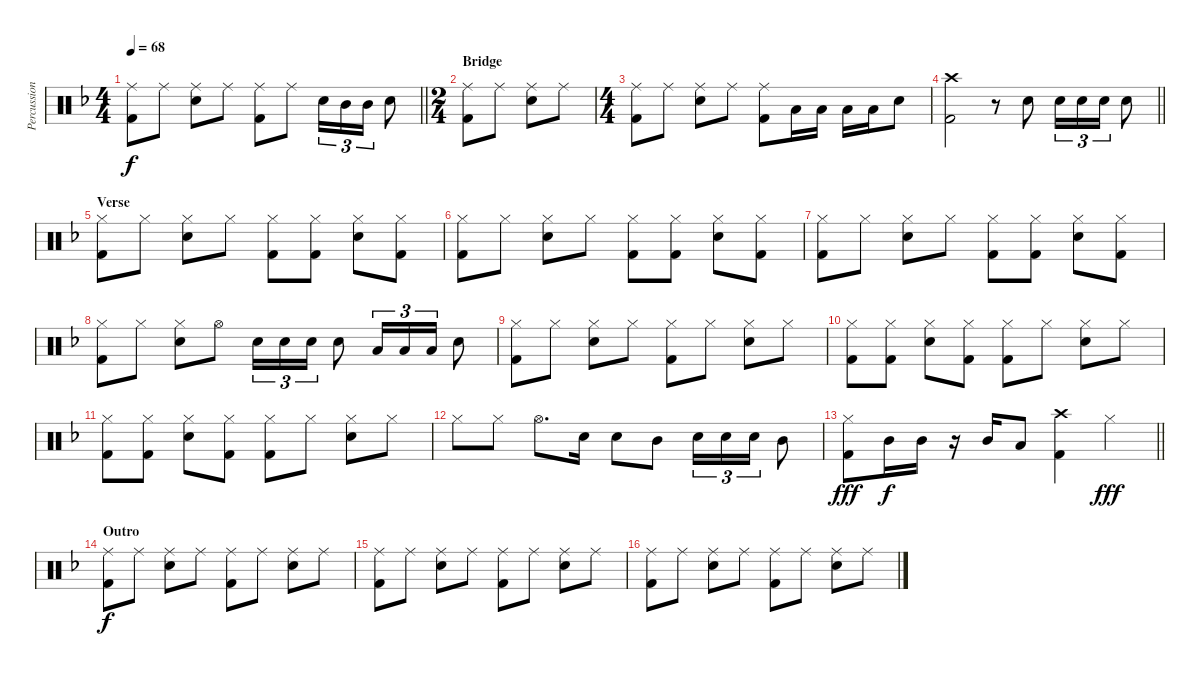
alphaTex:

\track ("Percussion" "Percussion") {instrument percussion}
\staff {score}
\articulation defaults
\ts (4 4)
\tempo 68
\clef neutral
\barLineRight lightlight
\ks f
("Ride (middle)" "Kick (hit) 2").8{dy f} "Ride (middle)".8 ("Ride (middle)" "Snare (hit) 2").8 "Ride (middle)".8 ("Ride (middle)" "Kick (hit) 2").8 "Ride (middle)".8 "Snare (hit) 2".16{tu (3 2)} "Mid Tom (hit)".16{tu (3 2)} "Mid Tom (hit)".16{tu (3 2)} "Snare (hit) 2".8 |
\ts (2 4)
\section ("" "Bridge")
("Ride (middle)" "Kick (hit) 2").8 "Ride (middle)".8 ("Ride (middle)" "Snare (hit) 2").8 "Ride (middle)".8 |
\ts (4 4)
("Ride (middle)" "Kick (hit) 2").8 "Ride (middle)".8 ("Ride (middle)" "Snare (hit) 2").8 "Ride (middle)".8 ("Ride (middle)" "Kick (hit) 2").8 "Low Floor Tom (hit)".16 "Low Floor Tom (hit)".16 "Low Floor Tom (hit)".16 "Low Floor Tom (hit)".16 "Snare (hit) 2".8 |
\barLineRight lightlight
("Crash high (hit)" "Kick (hit) 2").2 r.8 "Snare (hit) 2".8 "Snare (hit) 2".16{tu (3 2)} "Snare (hit) 2".16{tu (3 2)} "Snare (hit) 2".16{tu (3 2)} "Snare (hit) 2".8 |
\section ("" "Verse")
("Hi-Hat (closed)" "Kick (hit) 2").8 "Hi-Hat (closed)".8 ("Hi-Hat (closed)" "Snare (hit) 2").8 "Hi-Hat (closed)".8 ("Hi-Hat (closed)" "Kick (hit) 2").8 ("Hi-Hat (closed)" "Kick (hit) 2").8 ("Hi-Hat (closed)" "Snare (hit) 2").8 ("Hi-Hat (closed)" "Kick (hit) 2").8 |
("Hi-Hat (closed)" "Kick (hit) 2").8 "Hi-Hat (closed)".8 ("Hi-Hat (closed)" "Snare (hit) 2").8 "Hi-Hat (closed)".8 ("Hi-Hat (closed)" "Kick (hit) 2").8 ("Hi-Hat (closed)" "Kick (hit) 2").8 ("Hi-Hat (closed)" "Snare (hit) 2").8 ("Hi-Hat (closed)" "Kick (hit) 2").8 |
("Hi-Hat (closed)" "Kick (hit) 2").8 "Hi-Hat (closed)".8 ("Hi-Hat (closed)" "Snare (hit) 2").8 "Hi-Hat (closed)".8 ("Hi-Hat (closed)" "Kick (hit) 2").8 ("Hi-Hat (closed)" "Kick (hit) 2").8 ("Hi-Hat (closed)" "Snare (hit) 2").8 ("Hi-Hat (closed)" "Kick (hit) 2").8 |
("Hi-Hat (closed)" "Kick (hit) 2").8 "Hi-Hat (closed)".8 ("Hi-Hat (closed)" "Snare (hit) 2").8 "Hi-Hat (open)".8 "Snare (hit) 2".16{tu (3 2)} "Snare (hit) 2".16{tu (3 2)} "Snare (hit) 2".16{tu (3 2)} "Snare (hit) 2".8 "Low Floor Tom (hit)".16{tu (3 2)} "Low Floor Tom (hit)".16{tu (3 2)} "Low Floor Tom (hit)".16{tu (3 2)} "Snare (hit) 2".8 |
("Hi-Hat (closed)" "Kick (hit) 2").8 "Hi-Hat (closed)".8 ("Hi-Hat (closed)" "Snare (hit) 2").8 "Hi-Hat (closed)".8 ("Hi-Hat (closed)" "Kick (hit) 2").8 "Hi-Hat (closed)".8 ("Hi-Hat (closed)" "Snare (hit) 2").8 "Hi-Hat (closed)".8 |
("Hi-Hat (closed)" "Kick (hit) 2").8 ("Hi-Hat (closed)" "Kick (hit) 2").8 ("Hi-Hat (closed)" "Snare (hit) 2").8 ("Hi-Hat (closed)" "Kick (hit) 2").8 ("Hi-Hat (closed)" "Kick (hit) 2").8 "Hi-Hat (closed)".8 ("Hi-Hat (closed)" "Snare (hit) 2").8 "Hi-Hat (closed)".8 |
("Hi-Hat (closed)" "Kick (hit) 2").8 ("Hi-Hat (closed)" "Kick (hit) 2").8 ("Hi-Hat (closed)" "Snare (hit) 2").8 ("Hi-Hat (closed)" "Kick (hit) 2").8 ("Hi-Hat (closed)" "Kick (hit) 2").8 "Hi-Hat (closed)".8 ("Hi-Hat (closed)" "Snare (hit) 2").8 "Hi-Hat (closed)".8 |
"Hi-Hat (closed)".8 "Hi-Hat (closed)".8 "Hi-Hat (open)".8{d} "Snare (hit) 2".16 "Snare (hit) 2".8 "Mid Tom (hit)".8 "Snare (hit) 2".16{tu (3 2)} "Snare (hit) 2".16{tu (3 2)} "Snare (hit) 2".16{tu (3 2)} "Mid Tom (hit)".8 |
\barLineRight lightlight
("Hi-Hat (closed)" "Kick (hit) 2").8{dy fff} "Mid Tom (hit)".16{dy f} "Mid Tom (hit)".16 r.16 "Mid Tom (hit)".16 "Low Floor Tom (hit)".8 ("Crash high (hit)" "Kick (hit) 2").4 "Hi-Hat (closed)".4{dy fff} |
\section ("" "Outro")
("Ride (middle)" "Kick (hit) 2").8{dy f} "Ride (middle)".8 ("Ride (middle)" "Snare (hit) 2").8 "Ride (middle)".8 ("Ride (middle)" "Kick (hit) 2").8 "Ride (middle)".8 ("Ride (middle)" "Snare (hit) 2").8 "Ride (middle)".8 |
("Ride (middle)" "Kick (hit) 2").8 "Ride (middle)".8 ("Ride (middle)" "Snare (hit) 2").8 "Ride (middle)".8 ("Ride (middle)" "Kick (hit) 2").8 "Ride (middle)".8 ("Ride (middle)" "Snare (hit) 2").8 "Ride (middle)".8 |
("Ride (middle)" "Kick (hit) 2").8 "Ride (middle)".8 ("Ride (middle)" "Snare (hit) 2").8 "Ride (middle)".8 ("Ride (middle)" "Kick (hit) 2").8 "Ride (middle)".8 ("Ride (middle)" "Snare (hit) 2").8 "Ride (middle)".8
